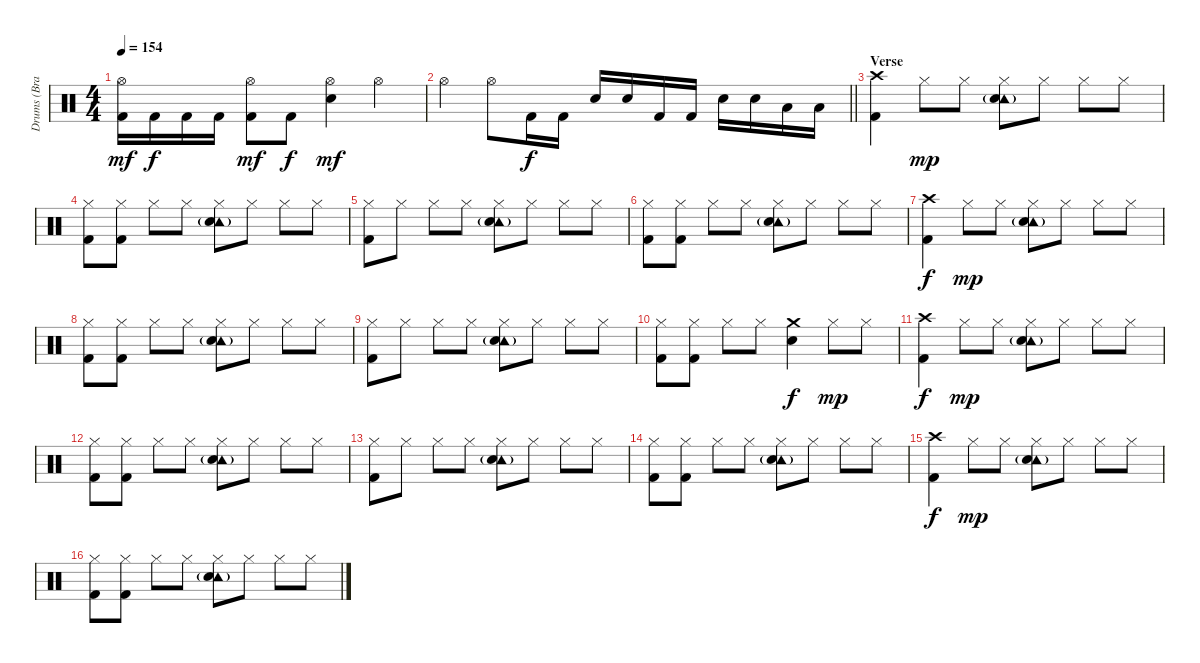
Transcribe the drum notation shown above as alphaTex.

\track ("Drums (Brandon Saller)" "Drums (Bra") {instrument percussion}
\staff {score}
\articulation defaults
\ts (4 4)
\tempo 154
\clef neutral
\ks c
("Hi-Hat (open)" "Kick (hit) 2").16{dy mf} "Kick (hit) 2".16{dy f} "Kick (hit) 2".16 "Kick (hit) 2".16 ("Hi-Hat (open)" "Kick (hit) 2").8{dy mf} "Kick (hit) 2".8{dy f} ("Hi-Hat (open)" "Electric Snare (hit)").4{dy mf} "Hi-Hat (open)".4 |
\barLineRight lightlight "Hi-Hat (open)".4 "Hi-Hat (open)".8 "Kick (hit) 2".16{dy f} "Kick (hit) 2".16 "Electric Snare (hit)".16 "Electric Snare (hit)".16 "Kick (hit) 2".16 "Kick (hit) 2".16 "Electric Snare (hit)".16 "Electric Snare (hit)".16 "Low Tom (hit)".16 "Low Tom (hit)".16
|
\section ("" "Verse")
("Crash high (hit)" "Kick (hit) 2").4 "Hi-Hat (closed)".8{dy mp} "Hi-Hat (closed)".8 ("Hi-Hat (closed)" "Tambourine (hit)"{g} "Electric Snare (hit)").8 "Hi-Hat (closed)".8 "Hi-Hat (closed)".8 "Hi-Hat (closed)".8 |
("Hi-Hat (closed)" "Kick (hit) 2").8 ("Hi-Hat (closed)" "Kick (hit) 2").8 "Hi-Hat (closed)".8 "Hi-Hat (closed)".8 ("Hi-Hat (closed)" "Tambourine (hit)"{g} "Electric Snare (hit)").8 "Hi-Hat (closed)".8 "Hi-Hat (closed)".8 "Hi-Hat (closed)".8 |
("Hi-Hat (closed)" "Kick (hit) 2").8 "Hi-Hat (closed)".8 "Hi-Hat (closed)".8 "Hi-Hat (closed)".8 ("Hi-Hat (closed)" "Tambourine (hit)"{g} "Electric Snare (hit)").8 "Hi-Hat (closed)".8 "Hi-Hat (closed)".8 "Hi-Hat (closed)".8 |
("Hi-Hat (closed)" "Kick (hit) 2").8 ("Hi-Hat (closed)" "Kick (hit) 2").8 "Hi-Hat (closed)".8 "Hi-Hat (closed)".8 ("Hi-Hat (closed)" "Tambourine (hit)"{g} "Electric Snare (hit)").8 "Hi-Hat (closed)".8 "Hi-Hat (closed)".8 "Hi-Hat (closed)".8 |
("Crash high (hit)" "Kick (hit) 2").4{dy f} "Hi-Hat (closed)".8{dy mp} "Hi-Hat (closed)".8 ("Hi-Hat (closed)" "Tambourine (hit)"{g} "Electric Snare (hit)").8 "Hi-Hat (closed)".8 "Hi-Hat (closed)".8 "Hi-Hat (closed)".8 |
("Hi-Hat (closed)" "Kick (hit) 2").8 ("Hi-Hat (closed)" "Kick (hit) 2").8 "Hi-Hat (closed)".8 "Hi-Hat (closed)".8 ("Hi-Hat (closed)" "Tambourine (hit)"{g} "Electric Snare (hit)").8 "Hi-Hat (closed)".8 "Hi-Hat (closed)".8 "Hi-Hat (closed)".8 |
("Hi-Hat (closed)" "Kick (hit) 2").8 "Hi-Hat (closed)".8 "Hi-Hat (closed)".8 "Hi-Hat (closed)".8 ("Hi-Hat (closed)" "Tambourine (hit)"{g} "Electric Snare (hit)").8 "Hi-Hat (closed)".8 "Hi-Hat (closed)".8 "Hi-Hat (closed)".8 |
("Hi-Hat (closed)" "Kick (hit) 2").8 ("Hi-Hat (closed)" "Kick (hit) 2").8 "Hi-Hat (closed)".8 "Hi-Hat (closed)".8 ("Crash medium (hit)" "Electric Snare (hit)").4{dy f} "Hi-Hat (closed)".8{dy mp} "Hi-Hat (closed)".8 |
("Crash high (hit)" "Kick (hit) 2").4{dy f} "Hi-Hat (closed)".8{dy mp} "Hi-Hat (closed)".8 ("Hi-Hat (closed)" "Tambourine (hit)"{g} "Electric Snare (hit)").8 "Hi-Hat (closed)".8 "Hi-Hat (closed)".8 "Hi-Hat (closed)".8 |
("Hi-Hat (closed)" "Kick (hit) 2").8 ("Hi-Hat (closed)" "Kick (hit) 2").8 "Hi-Hat (closed)".8 "Hi-Hat (closed)".8 ("Hi-Hat (closed)" "Tambourine (hit)"{g} "Electric Snare (hit)").8 "Hi-Hat (closed)".8 "Hi-Hat (closed)".8 "Hi-Hat (closed)".8 |
("Hi-Hat (closed)" "Kick (hit) 2").8 "Hi-Hat (closed)".8 "Hi-Hat (closed)".8 "Hi-Hat (closed)".8 ("Hi-Hat (closed)" "Tambourine (hit)"{g} "Electric Snare (hit)").8 "Hi-Hat (closed)".8 "Hi-Hat (closed)".8 "Hi-Hat (closed)".8 |
("Hi-Hat (closed)" "Kick (hit) 2").8 ("Hi-Hat (closed)" "Kick (hit) 2").8 "Hi-Hat (closed)".8 "Hi-Hat (closed)".8 ("Hi-Hat (closed)" "Tambourine (hit)"{g} "Electric Snare (hit)").8 "Hi-Hat (closed)".8 "Hi-Hat (closed)".8 "Hi-Hat (closed)".8 |
("Crash high (hit)" "Kick (hit) 2").4{dy f} "Hi-Hat (closed)".8{dy mp} "Hi-Hat (closed)".8 ("Hi-Hat (closed)" "Tambourine (hit)"{g} "Electric Snare (hit)").8 "Hi-Hat (closed)".8 "Hi-Hat (closed)".8 "Hi-Hat (closed)".8 |
("Hi-Hat (closed)" "Kick (hit) 2").8 ("Hi-Hat (closed)" "Kick (hit) 2").8 "Hi-Hat (closed)".8 "Hi-Hat (closed)".8 ("Hi-Hat (closed)" "Tambourine (hit)"{g} "Electric Snare (hit)").8 "Hi-Hat (closed)".8 "Hi-Hat (closed)".8 "Hi-Hat (closed)".8
